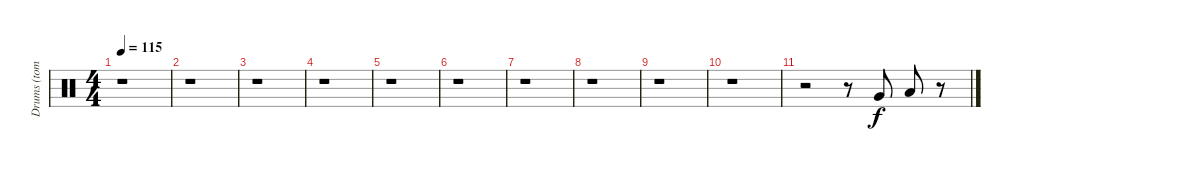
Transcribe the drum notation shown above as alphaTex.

\track ("Drums (toms)" "Drums (tom") {instrument percussion}
\staff {score}
\articulation defaults
\ts (4 4)
\tempo 115
\clef neutral
\ks c
r.1{dy f} |
r.1 |
r.1 |
r.1 |
r.1 |
r.1 |
r.1 |
r.1 |
r.1 |
r.1 |
r.2 r.8 "Very Low Tom (hit)".8 "Low Floor Tom (hit)".8 r.8
